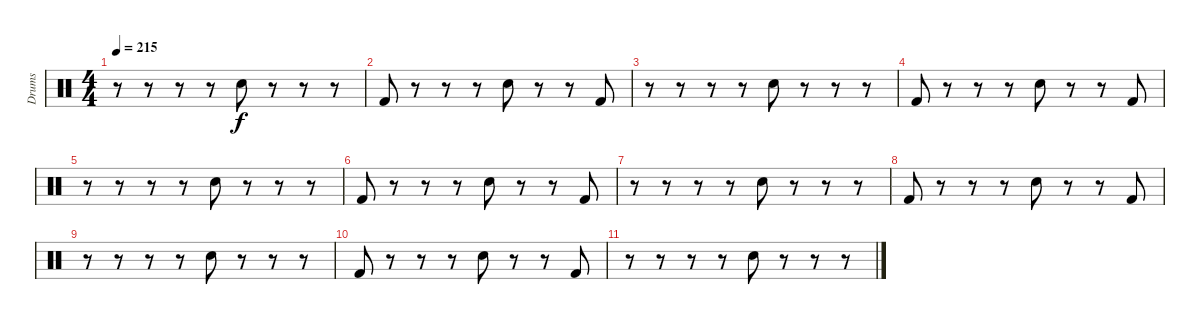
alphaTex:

\track ("Drums" "Drums") {instrument percussion}
\staff {score}
\articulation defaults
\ts (4 4)
\tempo 215
\clef neutral
\ks c
r.8{dy f} r.8 r.8 r.8 "Electric Snare (hit)".8 r.8 r.8 r.8 |
"Kick (hit) 2".8 r.8 r.8 r.8 "Electric Snare (hit)".8 r.8 r.8 "Kick (hit) 2".8 |
r.8 r.8 r.8 r.8 "Electric Snare (hit)".8 r.8 r.8 r.8 |
"Kick (hit) 2".8 r.8 r.8 r.8 "Electric Snare (hit)".8 r.8 r.8 "Kick (hit) 2".8 |
r.8 r.8 r.8 r.8 "Electric Snare (hit)".8 r.8 r.8 r.8 |
"Kick (hit) 2".8 r.8 r.8 r.8 "Electric Snare (hit)".8 r.8 r.8 "Kick (hit) 2".8 |
r.8 r.8 r.8 r.8 "Electric Snare (hit)".8 r.8 r.8 r.8 |
"Kick (hit) 2".8 r.8 r.8 r.8 "Electric Snare (hit)".8 r.8 r.8 "Kick (hit) 2".8 |
r.8 r.8 r.8 r.8 "Electric Snare (hit)".8 r.8 r.8 r.8 |
"Kick (hit) 2".8 r.8 r.8 r.8 "Electric Snare (hit)".8 r.8 r.8 "Kick (hit) 2".8 |
r.8 r.8 r.8 r.8 "Electric Snare (hit)".8 r.8 r.8 r.8
